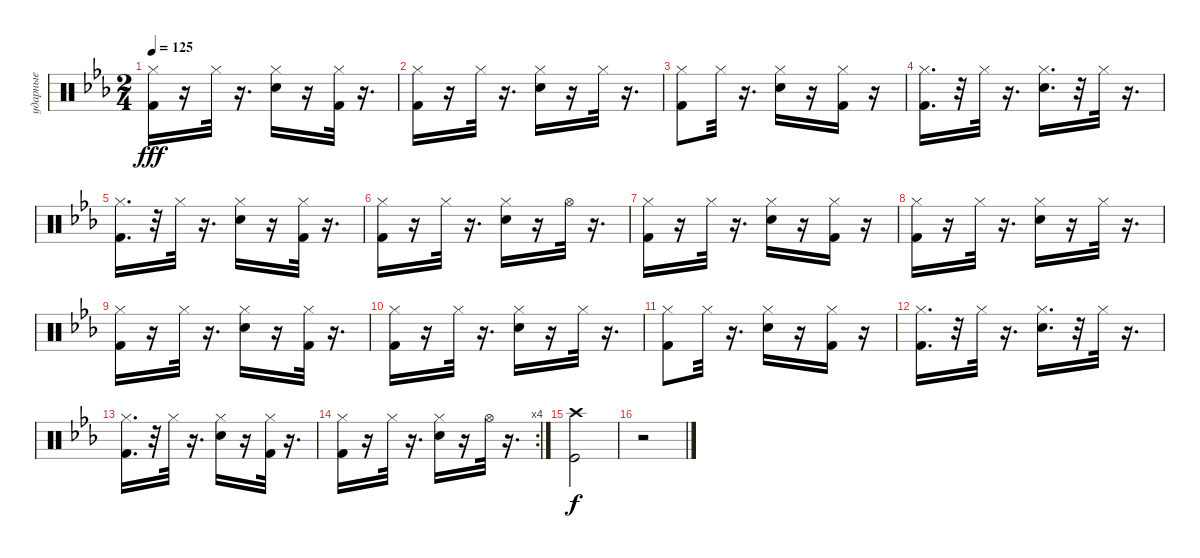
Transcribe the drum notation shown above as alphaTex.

\track ("ударные" "ударные") {instrument percussion}
\staff {score}
\articulation defaults
\ts (2 4)
\tempo 125
\clef neutral
\ks cminor
("Kick (hit) 2" "Hi-Hat (closed)").16{dy fff} r.16 "Hi-Hat (closed)".32 r.16{d} ("Snare (hit) 2" "Hi-Hat (closed)").16 r.16 ("Kick (hit) 2" "Hi-Hat (closed)").32 r.16{d} |
("Kick (hit) 2" "Hi-Hat (closed)").16 r.16 "Hi-Hat (closed)".32 r.16{d} ("Snare (hit) 2" "Hi-Hat (closed)").16 r.16 "Hi-Hat (closed)".32 r.16{d} |
("Kick (hit) 2" "Hi-Hat (closed)").8 "Hi-Hat (closed)".32 r.16{d} ("Snare (hit) 2" "Hi-Hat (closed)").16 r.16 ("Kick (hit) 2" "Hi-Hat (closed)").16 r.16 |
("Kick (hit) 2" "Hi-Hat (closed)").16{d} r.32 "Hi-Hat (closed)".32 r.16{d} ("Snare (hit) 2" "Hi-Hat (closed)").16{d} r.32 "Hi-Hat (closed)".32 r.16{d} |
("Kick (hit) 2" "Hi-Hat (closed)").16{d} r.32 "Hi-Hat (closed)".32 r.16{d} ("Snare (hit) 2" "Hi-Hat (closed)").16 r.16 ("Kick (hit) 2" "Hi-Hat (closed)").32 r.16{d} |
("Kick (hit) 2" "Hi-Hat (closed)").16 r.16 "Hi-Hat (closed)".32 r.16{d} ("Snare (hit) 2" "Hi-Hat (closed)").16 r.16 "Hi-Hat (open)".32 r.16{d} |
("Kick (hit) 2" "Hi-Hat (closed)").16 r.16 "Hi-Hat (closed)".32 r.16{d} ("Snare (hit) 2" "Hi-Hat (closed)").16 r.16 ("Kick (hit) 2" "Hi-Hat (closed)").16 r.16 |
("Kick (hit) 2" "Hi-Hat (closed)").16 r.16 "Hi-Hat (closed)".32 r.16{d} ("Snare (hit) 2" "Hi-Hat (closed)").16 r.16 "Hi-Hat (closed)".32 r.16{d} |
("Kick (hit) 2" "Hi-Hat (closed)").16 r.16 "Hi-Hat (closed)".32 r.16{d} ("Snare (hit) 2" "Hi-Hat (closed)").16 r.16 ("Kick (hit) 2" "Hi-Hat (closed)").32 r.16{d} |
("Kick (hit) 2" "Hi-Hat (closed)").16 r.16 "Hi-Hat (closed)".32 r.16{d} ("Snare (hit) 2" "Hi-Hat (closed)").16 r.16 "Hi-Hat (closed)".32 r.16{d} |
("Kick (hit) 2" "Hi-Hat (closed)").8 "Hi-Hat (closed)".32 r.16{d} ("Snare (hit) 2" "Hi-Hat (closed)").16 r.16 ("Kick (hit) 2" "Hi-Hat (closed)").16 r.16 |
("Kick (hit) 2" "Hi-Hat (closed)").16{d} r.32 "Hi-Hat (closed)".32 r.16{d} ("Snare (hit) 2" "Hi-Hat (closed)").16{d} r.32 "Hi-Hat (closed)".32 r.16{d} |
("Kick (hit) 2" "Hi-Hat (closed)").16{d} r.32 "Hi-Hat (closed)".32 r.16{d} ("Snare (hit) 2" "Hi-Hat (closed)").16 r.16 ("Kick (hit) 2" "Hi-Hat (closed)").32 r.16{d} |
\rc 4
("Kick (hit) 2" "Hi-Hat (closed)").16 r.16 "Hi-Hat (closed)".32 r.16{d} ("Snare (hit) 2" "Hi-Hat (closed)").16 r.16 "Hi-Hat (open)".32 r.16{d} |
("Kick (hit)" "Crash high (hit)").2{dy f} |
r.2
